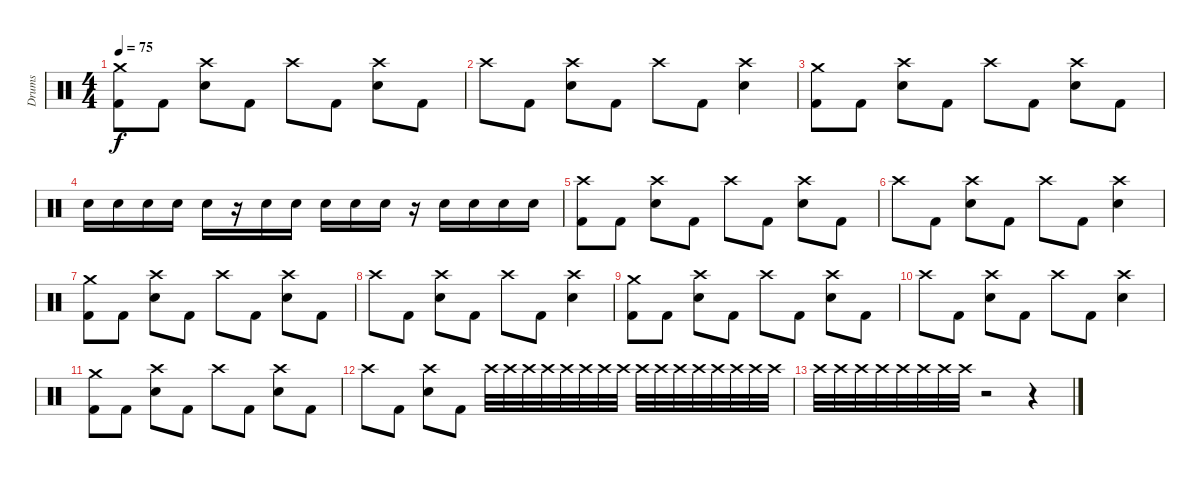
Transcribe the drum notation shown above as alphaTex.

\track ("Drums" "Drums") {instrument percussion}
\staff {score}
\articulation defaults
\ts (4 4)
\tempo 75
\clef neutral
\ks c
("Crash medium (hit)" "Kick (hit) 2").8{dy f} "Kick (hit) 2".8 ("Crash high (hit)" "Snare (hit) 2").8 "Kick (hit) 2".8 "Crash high (hit)".8 "Kick (hit) 2".8 ("Crash high (hit)" "Snare (hit) 2").8 "Kick (hit) 2".8 |
"Crash high (hit)".8 "Kick (hit) 2".8 ("Crash high (hit)" "Snare (hit) 2").8 "Kick (hit) 2".8 "Crash high (hit)".8 "Kick (hit) 2".8 ("Crash high (hit)" "Snare (hit) 2").4 |
("Crash medium (hit)" "Kick (hit) 2").8 "Kick (hit) 2".8 ("Crash high (hit)" "Snare (hit) 2").8 "Kick (hit) 2".8 "Crash high (hit)".8 "Kick (hit) 2".8 ("Crash high (hit)" "Snare (hit) 2").8 "Kick (hit) 2".8 |
"Snare (hit) 2".16 "Snare (hit) 2".16 "Snare (hit) 2".16 "Snare (hit) 2".16 "Snare (hit) 2".16 r.16 "Snare (hit) 2".16 "Snare (hit) 2".16 "Snare (hit) 2".16 "Snare (hit) 2".16 "Snare (hit) 2".16 r.16 "Snare (hit) 2".16 "Snare (hit) 2".16 "Snare (hit) 2".16 "Snare (hit) 2".16 |
("Crash high (hit)" "Kick (hit) 2").8 "Kick (hit) 2".8 ("Crash high (hit)" "Snare (hit) 2").8 "Kick (hit) 2".8 "Crash high (hit)".8 "Kick (hit) 2".8 ("Crash high (hit)" "Snare (hit) 2").8 "Kick (hit) 2".8 |
"Crash high (hit)".8 "Kick (hit) 2".8 ("Crash high (hit)" "Snare (hit) 2").8 "Kick (hit) 2".8 "Crash high (hit)".8 "Kick (hit) 2".8 ("Crash high (hit)" "Snare (hit) 2").4 |
("Crash medium (hit)" "Kick (hit) 2").8 "Kick (hit) 2".8 ("Crash high (hit)" "Snare (hit) 2").8 "Kick (hit) 2".8 "Crash high (hit)".8 "Kick (hit) 2".8 ("Crash high (hit)" "Snare (hit) 2").8 "Kick (hit) 2".8 |
"Crash high (hit)".8 "Kick (hit) 2".8 ("Crash high (hit)" "Snare (hit) 2").8 "Kick (hit) 2".8 "Crash high (hit)".8 "Kick (hit) 2".8 ("Crash high (hit)" "Snare (hit) 2").4 |
("Crash medium (hit)" "Kick (hit) 2").8 "Kick (hit) 2".8 ("Crash high (hit)" "Snare (hit) 2").8 "Kick (hit) 2".8 "Crash high (hit)".8 "Kick (hit) 2".8 ("Crash high (hit)" "Snare (hit) 2").8 "Kick (hit) 2".8 |
"Crash high (hit)".8 "Kick (hit) 2".8 ("Crash high (hit)" "Snare (hit) 2").8 "Kick (hit) 2".8 "Crash high (hit)".8 "Kick (hit) 2".8 ("Crash high (hit)" "Snare (hit) 2").4 |
("Crash medium (hit)" "Kick (hit) 2").8 "Kick (hit) 2".8 ("Crash high (hit)" "Snare (hit) 2").8 "Kick (hit) 2".8 "Crash high (hit)".8 "Kick (hit) 2".8 ("Crash high (hit)" "Snare (hit) 2").8 "Kick (hit) 2".8 |
"Crash high (hit)".8 "Kick (hit) 2".8 ("Crash high (hit)" "Snare (hit) 2").8 "Kick (hit) 2".8 "Crash high (hit)".32 "Crash high (hit)".32 "Crash high (hit)".32 "Crash high (hit)".32 "Crash high (hit)".32 "Crash high (hit)".32 "Crash high (hit)".32 "Crash high (hit)".32 "Crash high (hit)".32 "Crash high (hit)".32 "Crash high (hit)".32 "Crash high (hit)".32 "Crash high (hit)".32 "Crash high (hit)".32 "Crash high (hit)".32 "Crash high (hit)".32 |
"Crash high (hit)".32 "Crash high (hit)".32 "Crash high (hit)".32 "Crash high (hit)".32 "Crash high (hit)".32 "Crash high (hit)".32 "Crash high (hit)".32 "Crash high (hit)".32 r.2 r.4
